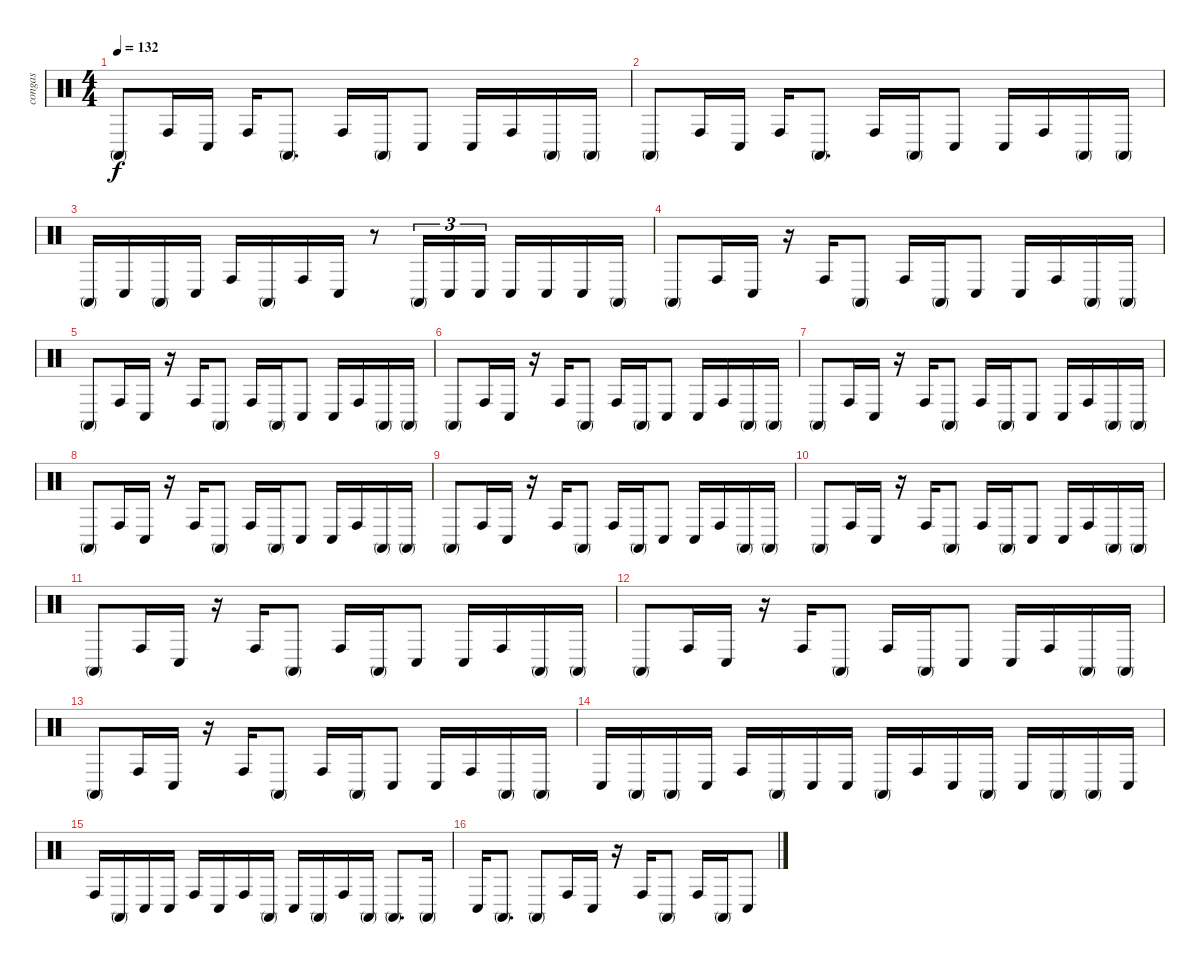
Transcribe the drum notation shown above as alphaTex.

\track ("congas" "congas") {instrument percussion}
\staff {score}
\articulation defaults
\ts (4 4)
\tempo 132
\clef neutral
\ks c "Conga high (mute)".8{dy f} "Conga high (hit)".16 "Conga low (hit)".16 "Conga high (hit)".16 "Conga high (mute)".8{d} "Conga high (hit)".16 "Conga high (mute)".16 "Conga low (hit)".8 "Conga low (hit)".16 "Conga high (hit)".16 "Conga high (mute)".16 "Conga high (mute)".16
|
"Conga high (mute)".8 "Conga high (hit)".16 "Conga low (hit)".16 "Conga high (hit)".16 "Conga high (mute)".8{d} "Conga high (hit)".16 "Conga high (mute)".16 "Conga low (hit)".8 "Conga low (hit)".16 "Conga high (hit)".16 "Conga high (mute)".16 "Conga high (mute)".16 |
"Conga high (mute)".16 "Conga low (hit)".16 "Conga high (mute)".16 "Conga low (hit)".16 "Conga high (hit)".16 "Conga high (mute)".16 "Conga high (hit)".16 "Conga low (hit)".16 r.8 "Conga high (mute)".16{tu (3 2)} "Conga low (hit)".16{tu (3 2)} "Conga low (hit)".16{tu (3 2)} "Conga low (hit)".16 "Conga low (hit)".16 "Conga low (hit)".16 "Conga high (mute)".16 |
"Conga high (mute)".8 "Conga high (hit)".16 "Conga low (hit)".16 r.16 "Conga high (hit)".16 "Conga high (mute)".8 "Conga high (hit)".16 "Conga high (mute)".16 "Conga low (hit)".8 "Conga low (hit)".16 "Conga high (hit)".16 "Conga high (mute)".16 "Conga high (mute)".16 |
"Conga high (mute)".8 "Conga high (hit)".16 "Conga low (hit)".16 r.16 "Conga high (hit)".16 "Conga high (mute)".8 "Conga high (hit)".16 "Conga high (mute)".16 "Conga low (hit)".8 "Conga low (hit)".16 "Conga high (hit)".16 "Conga high (mute)".16 "Conga high (mute)".16 |
"Conga high (mute)".8 "Conga high (hit)".16 "Conga low (hit)".16 r.16 "Conga high (hit)".16 "Conga high (mute)".8 "Conga high (hit)".16 "Conga high (mute)".16 "Conga low (hit)".8 "Conga low (hit)".16 "Conga high (hit)".16 "Conga high (mute)".16 "Conga high (mute)".16 |
"Conga high (mute)".8 "Conga high (hit)".16 "Conga low (hit)".16 r.16 "Conga high (hit)".16 "Conga high (mute)".8 "Conga high (hit)".16 "Conga high (mute)".16 "Conga low (hit)".8 "Conga low (hit)".16 "Conga high (hit)".16 "Conga high (mute)".16 "Conga high (mute)".16 |
"Conga high (mute)".8 "Conga high (hit)".16 "Conga low (hit)".16 r.16 "Conga high (hit)".16 "Conga high (mute)".8 "Conga high (hit)".16 "Conga high (mute)".16 "Conga low (hit)".8 "Conga low (hit)".16 "Conga high (hit)".16 "Conga high (mute)".16 "Conga high (mute)".16 |
"Conga high (mute)".8 "Conga high (hit)".16 "Conga low (hit)".16 r.16 "Conga high (hit)".16 "Conga high (mute)".8 "Conga high (hit)".16 "Conga high (mute)".16 "Conga low (hit)".8 "Conga low (hit)".16 "Conga high (hit)".16 "Conga high (mute)".16 "Conga high (mute)".16 |
"Conga high (mute)".8 "Conga high (hit)".16 "Conga low (hit)".16 r.16 "Conga high (hit)".16 "Conga high (mute)".8 "Conga high (hit)".16 "Conga high (mute)".16 "Conga low (hit)".8 "Conga low (hit)".16 "Conga high (hit)".16 "Conga high (mute)".16 "Conga high (mute)".16 |
"Conga high (mute)".8 "Conga high (hit)".16 "Conga low (hit)".16 r.16 "Conga high (hit)".16 "Conga high (mute)".8 "Conga high (hit)".16 "Conga high (mute)".16 "Conga low (hit)".8 "Conga low (hit)".16 "Conga high (hit)".16 "Conga high (mute)".16 "Conga high (mute)".16 |
"Conga high (mute)".8 "Conga high (hit)".16 "Conga low (hit)".16 r.16 "Conga high (hit)".16 "Conga high (mute)".8 "Conga high (hit)".16 "Conga high (mute)".16 "Conga low (hit)".8 "Conga low (hit)".16 "Conga high (hit)".16 "Conga high (mute)".16 "Conga high (mute)".16 |
"Conga high (mute)".8 "Conga high (hit)".16 "Conga low (hit)".16 r.16 "Conga high (hit)".16 "Conga high (mute)".8 "Conga high (hit)".16 "Conga high (mute)".16 "Conga low (hit)".8 "Conga low (hit)".16 "Conga high (hit)".16 "Conga high (mute)".16 "Conga high (mute)".16 |
"Conga low (hit)".16 "Conga high (mute)".16 "Conga high (mute)".16 "Conga low (hit)".16 "Conga high (hit)".16 "Conga high (mute)".16 "Conga low (hit)".16 "Conga low (hit)".16 "Conga high (mute)".16 "Conga high (hit)".16 "Conga low (hit)".16 "Conga high (mute)".16 "Conga low (hit)".16 "Conga high (mute)".16 "Conga high (mute)".16 "Conga low (hit)".16 |
"Conga high (hit)".16 "Conga high (mute)".16 "Conga low (hit)".16 "Conga low (hit)".16 "Conga high (hit)".16 "Conga low (hit)".16 "Conga high (hit)".16 "Conga high (mute)".16 "Conga low (hit)".16 "Conga high (mute)".16 "Conga high (hit)".16 "Conga high (mute)".16 "Conga high (mute)".8{d} "Conga high (mute)".16 |
"Conga low (hit)".16 "Conga high (mute)".8{d} "Conga high (mute)".8 "Conga high (hit)".16 "Conga low (hit)".16 r.16 "Conga high (hit)".16 "Conga high (mute)".8 "Conga high (hit)".16 "Conga high (mute)".16 "Conga low (hit)".8
